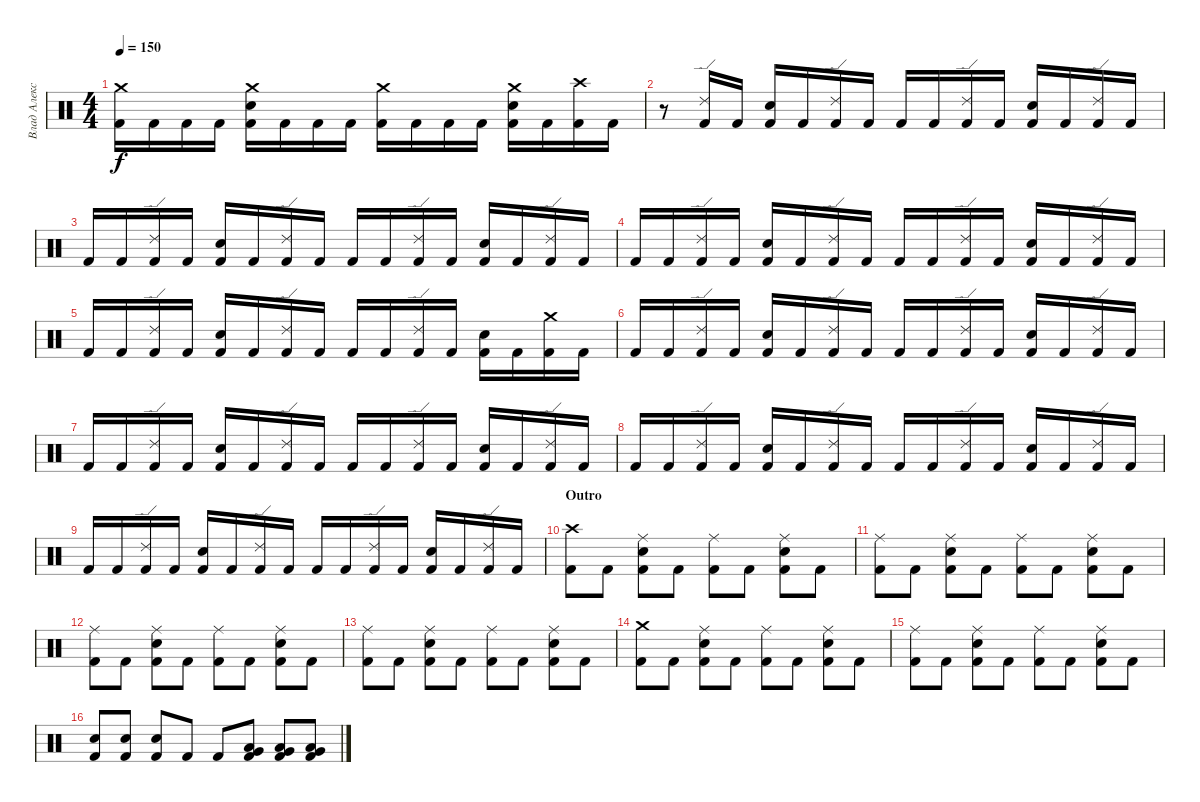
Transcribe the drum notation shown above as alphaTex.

\track ("Влад Алексеенко" "Влад Алекс") {instrument percussion}
\staff {score}
\articulation defaults
\ts (4 4)
\tempo 150
\clef neutral
\ks c
("Crash medium (hit)" "Kick (hit) 2").16{dy f} "Kick (hit) 2".16 "Kick (hit) 2".16 "Kick (hit) 2".16 ("Crash medium (hit)" "Electric Snare (hit)" "Kick (hit) 2").16 "Kick (hit) 2".16 "Kick (hit) 2".16 "Kick (hit) 2".16 ("Crash medium (hit)" "Kick (hit) 2").16 "Kick (hit) 2".16 "Kick (hit) 2".16 "Kick (hit) 2".16 ("Crash medium (hit)" "Electric Snare (hit)" "Kick (hit) 2").16 "Kick (hit) 2".16 ("Crash high (hit)" "Kick (hit) 2").16 "Kick (hit) 2".16 |
r.8 ("Ride (edge) 2" "Kick (hit) 2").16 "Kick (hit) 2".16 ("Electric Snare (hit)" "Kick (hit) 2").16 "Kick (hit) 2".16 ("Ride (edge) 2" "Kick (hit) 2").16 "Kick (hit) 2".16 "Kick (hit) 2".16 "Kick (hit) 2".16 ("Ride (edge) 2" "Kick (hit) 2").16 "Kick (hit) 2".16 ("Electric Snare (hit)" "Kick (hit) 2").16 "Kick (hit) 2".16 ("Ride (edge) 2" "Kick (hit) 2").16 "Kick (hit) 2".16 |
"Kick (hit) 2".16 "Kick (hit) 2".16 ("Ride (edge) 2" "Kick (hit) 2").16 "Kick (hit) 2".16 ("Electric Snare (hit)" "Kick (hit) 2").16 "Kick (hit) 2".16 ("Ride (edge) 2" "Kick (hit) 2").16 "Kick (hit) 2".16 "Kick (hit) 2".16 "Kick (hit) 2".16 ("Ride (edge) 2" "Kick (hit) 2").16 "Kick (hit) 2".16 ("Electric Snare (hit)" "Kick (hit) 2").16 "Kick (hit) 2".16 ("Ride (edge) 2" "Kick (hit) 2").16 "Kick (hit) 2".16 |
"Kick (hit) 2".16 "Kick (hit) 2".16 ("Ride (edge) 2" "Kick (hit) 2").16 "Kick (hit) 2".16 ("Electric Snare (hit)" "Kick (hit) 2").16 "Kick (hit) 2".16 ("Ride (edge) 2" "Kick (hit) 2").16 "Kick (hit) 2".16 "Kick (hit) 2".16 "Kick (hit) 2".16 ("Ride (edge) 2" "Kick (hit) 2").16 "Kick (hit) 2".16 ("Electric Snare (hit)" "Kick (hit) 2").16 "Kick (hit) 2".16 ("Ride (edge) 2" "Kick (hit) 2").16 "Kick (hit) 2".16 |
"Kick (hit) 2".16 "Kick (hit) 2".16 ("Ride (edge) 2" "Kick (hit) 2").16 "Kick (hit) 2".16 ("Electric Snare (hit)" "Kick (hit) 2").16 "Kick (hit) 2".16 ("Ride (edge) 2" "Kick (hit) 2").16 "Kick (hit) 2".16 "Kick (hit) 2".16 "Kick (hit) 2".16 ("Ride (edge) 2" "Kick (hit) 2").16 "Kick (hit) 2".16 ("Electric Snare (hit)" "Kick (hit) 2").16 "Kick (hit) 2".16 ("Crash medium (hit)" "Kick (hit) 2").16 "Kick (hit) 2".16 |
"Kick (hit) 2".16 "Kick (hit) 2".16 ("Ride (edge) 2" "Kick (hit) 2").16 "Kick (hit) 2".16 ("Electric Snare (hit)" "Kick (hit) 2").16 "Kick (hit) 2".16 ("Ride (edge) 2" "Kick (hit) 2").16 "Kick (hit) 2".16 "Kick (hit) 2".16 "Kick (hit) 2".16 ("Ride (edge) 2" "Kick (hit) 2").16 "Kick (hit) 2".16 ("Electric Snare (hit)" "Kick (hit) 2").16 "Kick (hit) 2".16 ("Ride (edge) 2" "Kick (hit) 2").16 "Kick (hit) 2".16 |
"Kick (hit) 2".16 "Kick (hit) 2".16 ("Ride (edge) 2" "Kick (hit) 2").16 "Kick (hit) 2".16 ("Electric Snare (hit)" "Kick (hit) 2").16 "Kick (hit) 2".16 ("Ride (edge) 2" "Kick (hit) 2").16 "Kick (hit) 2".16 "Kick (hit) 2".16 "Kick (hit) 2".16 ("Ride (edge) 2" "Kick (hit) 2").16 "Kick (hit) 2".16 ("Electric Snare (hit)" "Kick (hit) 2").16 "Kick (hit) 2".16 ("Ride (edge) 2" "Kick (hit) 2").16 "Kick (hit) 2".16 |
"Kick (hit) 2".16 "Kick (hit) 2".16 ("Ride (edge) 2" "Kick (hit) 2").16 "Kick (hit) 2".16 ("Electric Snare (hit)" "Kick (hit) 2").16 "Kick (hit) 2".16 ("Ride (edge) 2" "Kick (hit) 2").16 "Kick (hit) 2".16 "Kick (hit) 2".16 "Kick (hit) 2".16 ("Ride (edge) 2" "Kick (hit) 2").16 "Kick (hit) 2".16 ("Electric Snare (hit)" "Kick (hit) 2").16 "Kick (hit) 2".16 ("Ride (edge) 2" "Kick (hit) 2").16 "Kick (hit) 2".16 |
"Kick (hit) 2".16 "Kick (hit) 2".16 ("Ride (edge) 2" "Kick (hit) 2").16 "Kick (hit) 2".16 ("Electric Snare (hit)" "Kick (hit) 2").16 "Kick (hit) 2".16 ("Ride (edge) 2" "Kick (hit) 2").16 "Kick (hit) 2".16 "Kick (hit) 2".16 "Kick (hit) 2".16 ("Ride (edge) 2" "Kick (hit) 2").16 "Kick (hit) 2".16 ("Electric Snare (hit)" "Kick (hit) 2").16 "Kick (hit) 2".16 ("Ride (edge) 2" "Kick (hit) 2").16 "Kick (hit) 2".16 |
\section ("" "Outro")
("Crash high (hit)" "Kick (hit) 2").8 "Kick (hit) 2".8 ("Ride (middle)" "Electric Snare (hit)" "Kick (hit) 2").8 "Kick (hit) 2".8 ("Ride (middle)" "Kick (hit) 2").8 "Kick (hit) 2".8 ("Ride (middle)" "Electric Snare (hit)" "Kick (hit) 2").8 "Kick (hit) 2".8 |
("Ride (middle)" "Kick (hit) 2").8 "Kick (hit) 2".8 ("Ride (middle)" "Electric Snare (hit)" "Kick (hit) 2").8 "Kick (hit) 2".8 ("Ride (middle)" "Kick (hit) 2").8 "Kick (hit) 2".8 ("Ride (middle)" "Electric Snare (hit)" "Kick (hit) 2").8 "Kick (hit) 2".8 |
("Ride (middle)" "Kick (hit) 2").8 "Kick (hit) 2".8 ("Ride (middle)" "Electric Snare (hit)" "Kick (hit) 2").8 "Kick (hit) 2".8 ("Ride (middle)" "Kick (hit) 2").8 "Kick (hit) 2".8 ("Ride (middle)" "Electric Snare (hit)" "Kick (hit) 2").8 "Kick (hit) 2".8 |
("Ride (middle)" "Kick (hit) 2").8 "Kick (hit) 2".8 ("Ride (middle)" "Electric Snare (hit)" "Kick (hit) 2").8 "Kick (hit) 2".8 ("Ride (middle)" "Kick (hit) 2").8 "Kick (hit) 2".8 ("Ride (middle)" "Electric Snare (hit)" "Kick (hit) 2").8 "Kick (hit) 2".8 |
("Crash medium (hit)" "Kick (hit) 2").8 "Kick (hit) 2".8 ("Ride (middle)" "Electric Snare (hit)" "Kick (hit) 2").8 "Kick (hit) 2".8 ("Ride (middle)" "Kick (hit) 2").8 "Kick (hit) 2".8 ("Ride (middle)" "Electric Snare (hit)" "Kick (hit) 2").8 "Kick (hit) 2".8 |
("Ride (middle)" "Kick (hit) 2").8 "Kick (hit) 2".8 ("Ride (middle)" "Electric Snare (hit)" "Kick (hit) 2").8 "Kick (hit) 2".8 ("Ride (middle)" "Kick (hit) 2").8 "Kick (hit) 2".8 ("Ride (middle)" "Electric Snare (hit)" "Kick (hit) 2").8 "Kick (hit) 2".8 |
("Electric Snare (hit)" "Kick (hit) 2").8 ("Electric Snare (hit)" "Kick (hit) 2").8 ("Electric Snare (hit)" "Kick (hit) 2").8 "Kick (hit) 2".8 "Kick (hit) 2".8 ("Low Tom (hit)" "Very Low Tom (hit)" "Kick (hit) 2").8 ("Low Tom (hit)" "Very Low Tom (hit)" "Kick (hit) 2").8 ("Low Tom (hit)" "Very Low Tom (hit)" "Kick (hit) 2").8
